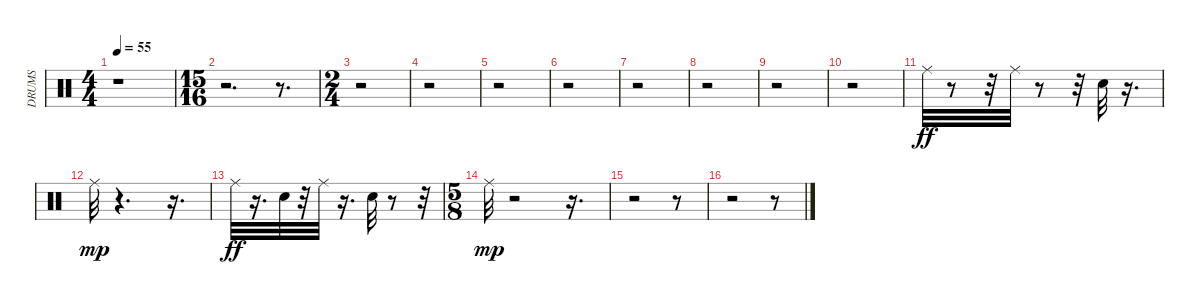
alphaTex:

\track ("DRUMS            " "DRUMS     ") {instrument percussion}
\staff {score}
\articulation defaults
\ts (4 4)
\tempo 55
\clef neutral
\ks c
r.1{dy f} |
\ts (15 16)
r.2{d} r.8{d} |
\ts (2 4)
r.2 |
r.2 |
r.2 |
r.2 |
r.2 |
r.2 |
r.2 |
r.2 |
"Ride (middle)".32{dy ff} r.8 r.32 "Ride (middle)".32 r.8 r.32 "Snare (hit) 2".32 r.16{d} |
"Ride (middle)".32{dy mp} r.4{d} r.16{d} |
"Ride (middle)".32{dy ff} r.16{d} "Snare (hit) 2".32 r.32 "Ride (middle)".32 r.16{d} "Snare (hit) 2".32 r.8 r.32 |
\ts (5 8)
"Ride (middle)".32{dy mp} r.2 r.16{d} |
r.2 r.8 |
r.2 r.8
